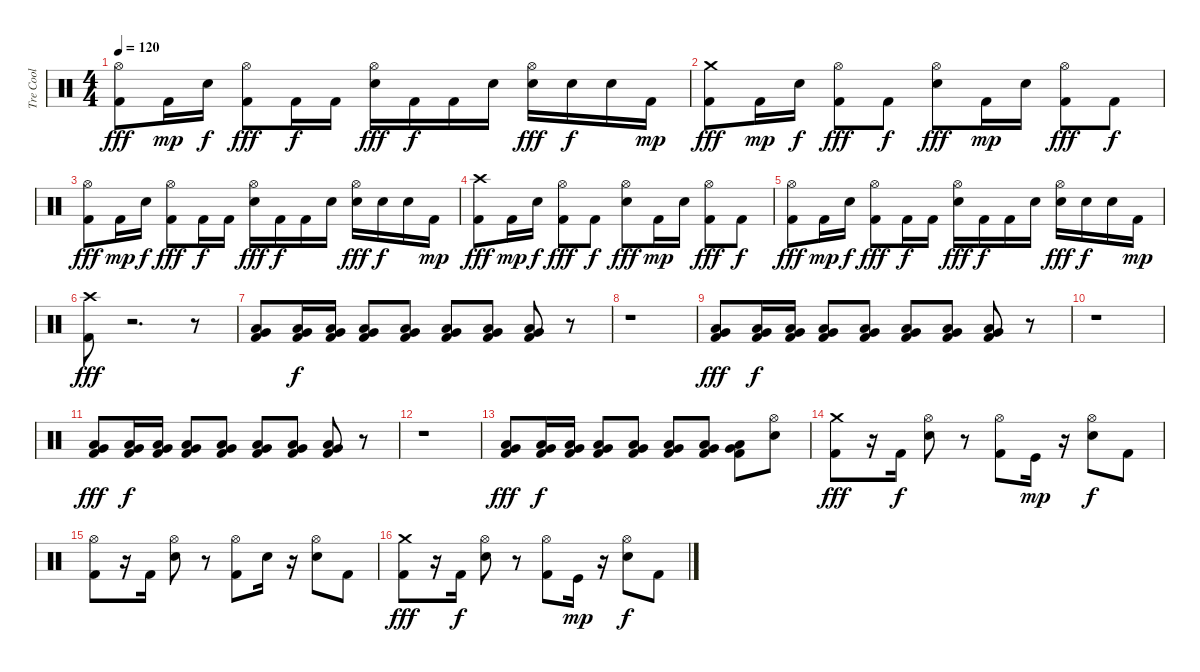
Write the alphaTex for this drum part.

\track ("Tre Cool" "Tre Cool") {instrument percussion}
\staff {score}
\articulation defaults
\ts (4 4)
\tempo 120
\clef neutral
\ks c
("Kick (hit) 2" "Hi-Hat (open)").8{dy fff} "Kick (hit) 2".16{dy mp} "Snare (hit) 2".16{dy f} ("Kick (hit) 2" "Hi-Hat (open)").8{dy fff} "Kick (hit) 2".16{dy f} "Kick (hit) 2".16 ("Electric Snare (hit)" "Hi-Hat (open)").16{dy fff} "Kick (hit) 2".16{dy f} "Kick (hit) 2".16 "Snare (hit) 2".16 ("Snare (hit) 2" "Hi-Hat (open)").16{dy fff} "Snare (hit) 2".16{dy f} "Snare (hit) 2".16 "Kick (hit) 2".16{dy mp} |
("Kick (hit) 2" "Crash medium (hit)").8{dy fff} "Kick (hit) 2".16{dy mp} "Snare (hit) 2".16{dy f} ("Kick (hit) 2" "Hi-Hat (open)").8{dy fff} "Kick (hit) 2".8{dy f} ("Electric Snare (hit)" "Hi-Hat (open)").8{dy fff} "Kick (hit) 2".16{dy mp} "Snare (hit) 2".16 ("Kick (hit) 2" "Hi-Hat (open)").8{dy fff} "Kick (hit) 2".8{dy f} |
("Kick (hit) 2" "Hi-Hat (open)").8{dy fff} "Kick (hit) 2".16{dy mp} "Snare (hit) 2".16{dy f} ("Kick (hit) 2" "Hi-Hat (open)").8{dy fff} "Kick (hit) 2".16{dy f} "Kick (hit) 2".16 ("Electric Snare (hit)" "Hi-Hat (open)").16{dy fff} "Kick (hit) 2".16{dy f} "Kick (hit) 2".16 "Snare (hit) 2".16 ("Snare (hit) 2" "Hi-Hat (open)").16{dy fff} "Snare (hit) 2".16{dy f} "Snare (hit) 2".16 "Kick (hit) 2".16{dy mp} |
("Kick (hit) 2" "Crash high (hit)").8{dy fff} "Kick (hit) 2".16{dy mp} "Snare (hit) 2".16{dy f} ("Kick (hit) 2" "Hi-Hat (open)").8{dy fff} "Kick (hit) 2".8{dy f} ("Electric Snare (hit)" "Hi-Hat (open)").8{dy fff} "Kick (hit) 2".16{dy mp} "Snare (hit) 2".16 ("Kick (hit) 2" "Hi-Hat (open)").8{dy fff} "Kick (hit) 2".8{dy f} |
("Kick (hit) 2" "Hi-Hat (open)").8{dy fff} "Kick (hit) 2".16{dy mp} "Snare (hit) 2".16{dy f} ("Kick (hit) 2" "Hi-Hat (open)").8{dy fff} "Kick (hit) 2".16{dy f} "Kick (hit) 2".16 ("Electric Snare (hit)" "Hi-Hat (open)").16{dy fff} "Kick (hit) 2".16{dy f} "Kick (hit) 2".16 "Snare (hit) 2".16 ("Snare (hit) 2" "Hi-Hat (open)").16{dy fff} "Snare (hit) 2".16{dy f} "Snare (hit) 2".16 "Kick (hit) 2".16{dy mp} |
("Kick (hit) 2" "Crash high (hit)").8{dy fff} r.2{d} r.8 |
("Kick (hit) 2" "Very Low Tom (hit)" "Low Floor Tom (hit)").8 ("Kick (hit) 2" "Very Low Tom (hit)" "Low Floor Tom (hit)").16{dy f} ("Kick (hit) 2" "Very Low Tom (hit)" "Low Floor Tom (hit)").16 ("Kick (hit) 2" "Very Low Tom (hit)" "Low Floor Tom (hit)").8 ("Kick (hit) 2" "Very Low Tom (hit)" "Low Floor Tom (hit)").8 ("Kick (hit) 2" "Very Low Tom (hit)" "Low Floor Tom (hit)").8 ("Kick (hit) 2" "Very Low Tom (hit)" "Low Floor Tom (hit)").8 ("Kick (hit) 2" "Very Low Tom (hit)" "Low Floor Tom (hit)").8 r.8 |
r.1 |
("Kick (hit) 2" "Very Low Tom (hit)" "Low Floor Tom (hit)").8{dy fff} ("Kick (hit) 2" "Very Low Tom (hit)" "Low Floor Tom (hit)").16{dy f} ("Kick (hit) 2" "Very Low Tom (hit)" "Low Floor Tom (hit)").16 ("Kick (hit) 2" "Very Low Tom (hit)" "Low Floor Tom (hit)").8 ("Kick (hit) 2" "Very Low Tom (hit)" "Low Floor Tom (hit)").8 ("Kick (hit) 2" "Very Low Tom (hit)" "Low Floor Tom (hit)").8 ("Kick (hit) 2" "Very Low Tom (hit)" "Low Floor Tom (hit)").8 ("Kick (hit) 2" "Very Low Tom (hit)" "Low Floor Tom (hit)").8 r.8 |
r.1 |
("Kick (hit) 2" "Very Low Tom (hit)" "Low Floor Tom (hit)").8{dy fff} ("Kick (hit) 2" "Very Low Tom (hit)" "Low Floor Tom (hit)").16{dy f} ("Kick (hit) 2" "Very Low Tom (hit)" "Low Floor Tom (hit)").16 ("Kick (hit) 2" "Very Low Tom (hit)" "Low Floor Tom (hit)").8 ("Kick (hit) 2" "Very Low Tom (hit)" "Low Floor Tom (hit)").8 ("Kick (hit) 2" "Very Low Tom (hit)" "Low Floor Tom (hit)").8 ("Kick (hit) 2" "Very Low Tom (hit)" "Low Floor Tom (hit)").8 ("Kick (hit) 2" "Very Low Tom (hit)" "Low Floor Tom (hit)").8 r.8 |
r.1 |
("Kick (hit) 2" "Very Low Tom (hit)" "Low Floor Tom (hit)").8{dy fff} ("Kick (hit) 2" "Very Low Tom (hit)" "Low Floor Tom (hit)").16{dy f} ("Kick (hit) 2" "Very Low Tom (hit)" "Low Floor Tom (hit)").16 ("Kick (hit) 2" "Very Low Tom (hit)" "Low Floor Tom (hit)").8 ("Kick (hit) 2" "Very Low Tom (hit)" "Low Floor Tom (hit)").8 ("Kick (hit) 2" "Very Low Tom (hit)" "Low Floor Tom (hit)").8 ("Kick (hit) 2" "Very Low Tom (hit)" "Low Floor Tom (hit)").8 ("Kick (hit) 2" "Very Low Tom (hit)" "Low Floor Tom (hit)").8 ("Electric Snare (hit)" "Hi-Hat (open)").8 |
("Kick (hit) 2" "Crash medium (hit)").8{dy fff} r.16 "Kick (hit) 2".16{dy f} ("Electric Snare (hit)" "Hi-Hat (open)").8 r.8 ("Kick (hit) 2" "Hi-Hat (open)").8 "Kick (hit)".16{dy mp} r.16 ("Electric Snare (hit)" "Hi-Hat (open)").8{dy f} "Kick (hit) 2".8 |
("Kick (hit) 2" "Hi-Hat (open)").8 r.16 "Kick (hit) 2".16 ("Electric Snare (hit)" "Hi-Hat (open)").8 r.8 ("Kick (hit) 2" "Hi-Hat (open)").8 "Electric Snare (hit)".16 r.16 ("Electric Snare (hit)" "Hi-Hat (open)").8 "Kick (hit) 2".8 |
("Kick (hit) 2" "Crash medium (hit)").8{dy fff} r.16 "Kick (hit) 2".16{dy f} ("Electric Snare (hit)" "Hi-Hat (open)").8 r.8 ("Kick (hit) 2" "Hi-Hat (open)").8 "Kick (hit)".16{dy mp} r.16 ("Electric Snare (hit)" "Hi-Hat (open)").8{dy f} "Kick (hit) 2".8
